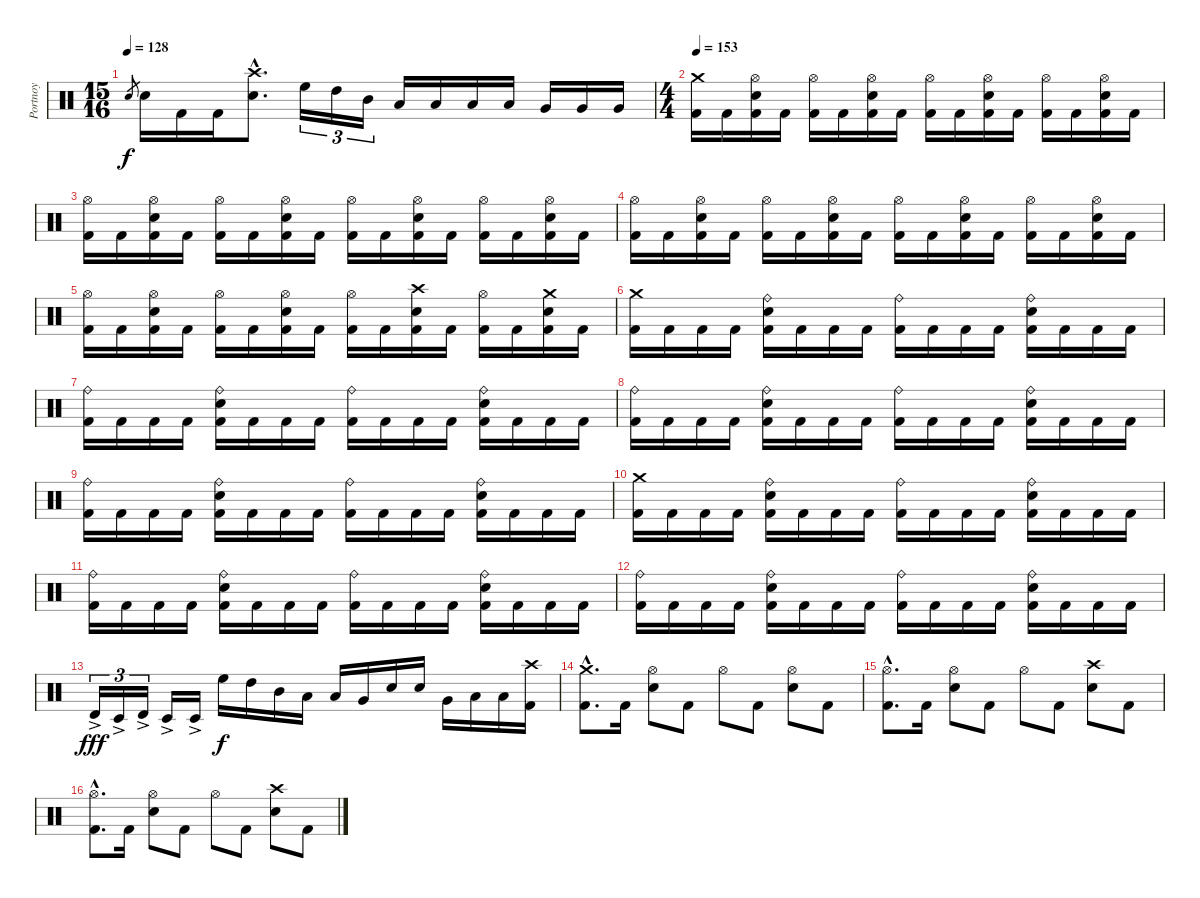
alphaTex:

\track ("Portnoy" "Portnoy") {instrument percussion}
\staff {score}
\articulation defaults
\ts (15 16)
\tempo 128
\clef neutral
\ks c "Electric Snare (hit)".8{gr dy f} "Electric Snare (hit)".16 "Kick (hit) 2".16 "Kick (hit) 2".16
("Electric Snare (hit)"{hac} "Crash high (hit)"{hac}).8{d} "High Floor Tom (hit)".16{tu (3 2)} "High Tom (hit)".16{tu (3 2)} "Mid Tom (hit)".16{tu (3 2)} "Low Tom (hit)".16 "Low Tom (hit)".16 "Low Tom (hit)".16 "Low Tom (hit)".16 "Very Low Tom (hit)".16 "Very Low Tom (hit)".16 "Very Low Tom (hit)".16 |
\ts (4 4)
\tempo 153
("Kick (hit) 2" "Crash medium (hit)").16 "Kick (hit) 2".16 ("Kick (hit) 2" "Electric Snare (hit)" "Hi-Hat (open)").16 "Kick (hit) 2".16 ("Kick (hit) 2" "Hi-Hat (open)").16 "Kick (hit) 2".16 ("Kick (hit) 2" "Electric Snare (hit)" "Hi-Hat (open)").16 "Kick (hit) 2".16 ("Kick (hit) 2" "Hi-Hat (open)").16 "Kick (hit) 2".16 ("Kick (hit) 2" "Electric Snare (hit)" "Hi-Hat (open)").16 "Kick (hit) 2".16 ("Kick (hit) 2" "Hi-Hat (open)").16 "Kick (hit) 2".16 ("Kick (hit) 2" "Electric Snare (hit)" "Hi-Hat (open)").16 "Kick (hit) 2".16 |
("Kick (hit) 2" "Hi-Hat (open)").16 "Kick (hit) 2".16 ("Kick (hit) 2" "Electric Snare (hit)" "Hi-Hat (open)").16 "Kick (hit) 2".16 ("Kick (hit) 2" "Hi-Hat (open)").16 "Kick (hit) 2".16 ("Kick (hit) 2" "Electric Snare (hit)" "Hi-Hat (open)").16 "Kick (hit) 2".16 ("Kick (hit) 2" "Hi-Hat (open)").16 "Kick (hit) 2".16 ("Kick (hit) 2" "Electric Snare (hit)" "Hi-Hat (open)").16 "Kick (hit) 2".16 ("Kick (hit) 2" "Hi-Hat (open)").16 "Kick (hit) 2".16 ("Kick (hit) 2" "Electric Snare (hit)" "Hi-Hat (open)").16 "Kick (hit) 2".16 |
("Kick (hit) 2" "Hi-Hat (open)").16 "Kick (hit) 2".16 ("Kick (hit) 2" "Electric Snare (hit)" "Hi-Hat (open)").16 "Kick (hit) 2".16 ("Kick (hit) 2" "Hi-Hat (open)").16 "Kick (hit) 2".16 ("Kick (hit) 2" "Electric Snare (hit)" "Hi-Hat (open)").16 "Kick (hit) 2".16 ("Kick (hit) 2" "Hi-Hat (open)").16 "Kick (hit) 2".16 ("Kick (hit) 2" "Electric Snare (hit)" "Hi-Hat (open)").16 "Kick (hit) 2".16 ("Kick (hit) 2" "Hi-Hat (open)").16 "Kick (hit) 2".16 ("Kick (hit) 2" "Electric Snare (hit)" "Hi-Hat (open)").16 "Kick (hit) 2".16 |
("Kick (hit) 2" "Hi-Hat (open)").16 "Kick (hit) 2".16 ("Kick (hit) 2" "Electric Snare (hit)" "Hi-Hat (open)").16 "Kick (hit) 2".16 ("Kick (hit) 2" "Hi-Hat (open)").16 "Kick (hit) 2".16 ("Kick (hit) 2" "Electric Snare (hit)" "Hi-Hat (open)").16 "Kick (hit) 2".16 ("Kick (hit) 2" "Hi-Hat (open)").16 "Kick (hit) 2".16 ("Kick (hit) 2" "Electric Snare (hit)" "Crash high (hit)").16 "Kick (hit) 2".16 ("Kick (hit) 2" "Hi-Hat (open)").16 "Kick (hit) 2".16 ("Kick (hit) 2" "Electric Snare (hit)" "Crash medium (hit)").16 "Kick (hit) 2".16 |
("Kick (hit) 2" "Crash medium (hit)").16 "Kick (hit) 2".16 "Kick (hit) 2".16 "Kick (hit) 2".16 ("Kick (hit) 2" "Electric Snare (hit)" "Ride (bell)").16 "Kick (hit) 2".16 "Kick (hit) 2".16 "Kick (hit) 2".16 ("Kick (hit) 2" "Ride (bell)").16 "Kick (hit) 2".16 "Kick (hit) 2".16 "Kick (hit) 2".16 ("Kick (hit) 2" "Electric Snare (hit)" "Ride (bell)").16 "Kick (hit) 2".16 "Kick (hit) 2".16 "Kick (hit) 2".16 |
("Kick (hit) 2" "Ride (bell)").16 "Kick (hit) 2".16 "Kick (hit) 2".16 "Kick (hit) 2".16 ("Kick (hit) 2" "Electric Snare (hit)" "Ride (bell)").16 "Kick (hit) 2".16 "Kick (hit) 2".16 "Kick (hit) 2".16 ("Kick (hit) 2" "Ride (bell)").16 "Kick (hit) 2".16 "Kick (hit) 2".16 "Kick (hit) 2".16 ("Kick (hit) 2" "Electric Snare (hit)" "Ride (bell)").16 "Kick (hit) 2".16 "Kick (hit) 2".16 "Kick (hit) 2".16 |
("Kick (hit) 2" "Ride (bell)").16 "Kick (hit) 2".16 "Kick (hit) 2".16 "Kick (hit) 2".16 ("Kick (hit) 2" "Electric Snare (hit)" "Ride (bell)").16 "Kick (hit) 2".16 "Kick (hit) 2".16 "Kick (hit) 2".16 ("Kick (hit) 2" "Ride (bell)").16 "Kick (hit) 2".16 "Kick (hit) 2".16 "Kick (hit) 2".16 ("Kick (hit) 2" "Electric Snare (hit)" "Ride (bell)").16 "Kick (hit) 2".16 "Kick (hit) 2".16 "Kick (hit) 2".16 |
("Kick (hit) 2" "Ride (bell)").16 "Kick (hit) 2".16 "Kick (hit) 2".16 "Kick (hit) 2".16 ("Kick (hit) 2" "Electric Snare (hit)" "Ride (bell)").16 "Kick (hit) 2".16 "Kick (hit) 2".16 "Kick (hit) 2".16 ("Kick (hit) 2" "Ride (bell)").16 "Kick (hit) 2".16 "Kick (hit) 2".16 "Kick (hit) 2".16 ("Kick (hit) 2" "Electric Snare (hit)" "Ride (bell)").16 "Kick (hit) 2".16 "Kick (hit) 2".16 "Kick (hit) 2".16 |
("Kick (hit) 2" "Crash medium (hit)").16 "Kick (hit) 2".16 "Kick (hit) 2".16 "Kick (hit) 2".16 ("Kick (hit) 2" "Electric Snare (hit)" "Ride (bell)").16 "Kick (hit) 2".16 "Kick (hit) 2".16 "Kick (hit) 2".16 ("Kick (hit) 2" "Ride (bell)").16 "Kick (hit) 2".16 "Kick (hit) 2".16 "Kick (hit) 2".16 ("Kick (hit) 2" "Electric Snare (hit)" "Ride (bell)").16 "Kick (hit) 2".16 "Kick (hit) 2".16 "Kick (hit) 2".16 |
("Kick (hit) 2" "Ride (bell)").16 "Kick (hit) 2".16 "Kick (hit) 2".16 "Kick (hit) 2".16 ("Kick (hit) 2" "Electric Snare (hit)" "Ride (bell)").16 "Kick (hit) 2".16 "Kick (hit) 2".16 "Kick (hit) 2".16 ("Kick (hit) 2" "Ride (bell)").16 "Kick (hit) 2".16 "Kick (hit) 2".16 "Kick (hit) 2".16 ("Kick (hit) 2" "Electric Snare (hit)" "Ride (bell)").16 "Kick (hit) 2".16 "Kick (hit) 2".16 "Kick (hit) 2".16 |
("Kick (hit) 2" "Ride (bell)").16 "Kick (hit) 2".16 "Kick (hit) 2".16 "Kick (hit) 2".16 ("Kick (hit) 2" "Electric Snare (hit)" "Ride (bell)").16 "Kick (hit) 2".16 "Kick (hit) 2".16 "Kick (hit) 2".16 ("Kick (hit) 2" "Ride (bell)").16 "Kick (hit) 2".16 "Kick (hit) 2".16 "Kick (hit) 2".16 ("Kick (hit) 2" "Electric Snare (hit)" "Ride (bell)").16 "Kick (hit) 2".16 "Kick (hit) 2".16 "Kick (hit) 2".16 |
"Timbale high (hit)"{ac}.16{tu (3 2) dy fff} "Timbale low (hit)"{ac}.16{tu (3 2)} "Timbale high (hit)"{ac}.16{tu (3 2)} "Timbale low (hit)"{ac}.16 "Timbale low (hit)"{ac}.16 "High Floor Tom (hit)".16{dy f} "High Tom (hit)".16 "Mid Tom (hit)".16 "Low Tom (hit)".16 "Low Tom (hit)".16 "Very Low Tom (hit)".16 "Electric Snare (hit)".16 "Electric Snare (hit)".16 "Very Low Tom (hit)".16 "Low Floor Tom (hit)".16 "Low Floor Tom (hit)".16 ("Kick (hit) 2" "Crash high (hit)").16 |
("Kick (hit) 2"{hac} "Crash medium (hit)"{hac}).8{d} "Kick (hit) 2".16 ("Electric Snare (hit)" "Hi-Hat (open)").8 "Kick (hit) 2".8 "Hi-Hat (open)".8 "Kick (hit) 2".8 ("Electric Snare (hit)" "Hi-Hat (open)").8 "Kick (hit) 2".8 |
("Kick (hit) 2"{hac} "Hi-Hat (open)"{hac}).8{d} "Kick (hit) 2".16 ("Electric Snare (hit)" "Hi-Hat (open)").8 "Kick (hit) 2".8 "Hi-Hat (open)".8 "Kick (hit) 2".8 ("Electric Snare (hit)" "Crash high (hit)").8 "Kick (hit) 2".8 |
("Kick (hit) 2"{hac} "Hi-Hat (open)"{hac}).8{d} "Kick (hit) 2".16 ("Electric Snare (hit)" "Hi-Hat (open)").8 "Kick (hit) 2".8 "Hi-Hat (open)".8 "Kick (hit) 2".8 ("Electric Snare (hit)" "Crash high (hit)").8 "Kick (hit) 2".8
